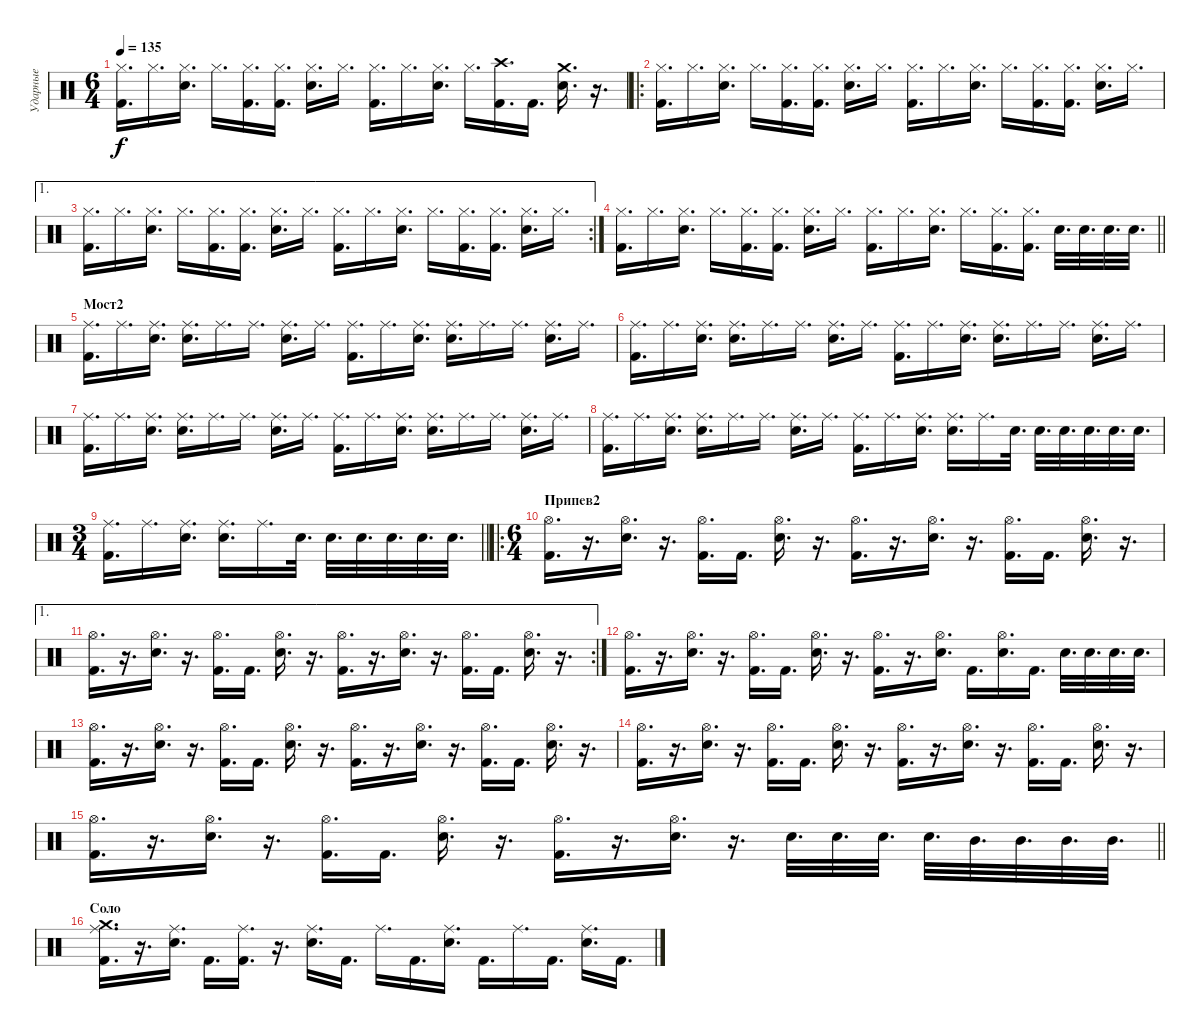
\track ("Ударные" "Ударные") {instrument percussion}
\staff {score}
\articulation defaults
\ts (6 4)
\tempo 135
\clef neutral
\ks c
("Hi-Hat (closed)" "Kick (hit) 2").16{d dy f} "Hi-Hat (closed)".16{d} ("Hi-Hat (closed)" "Electric Snare (hit)").16{d} "Hi-Hat (closed)".16{d} ("Hi-Hat (closed)" "Kick (hit) 2").16{d} ("Hi-Hat (closed)" "Kick (hit) 2").16{d} ("Hi-Hat (closed)" "Electric Snare (hit)").16{d} "Hi-Hat (closed)".16{d} ("Hi-Hat (closed)" "Kick (hit) 2").16{d} "Hi-Hat (closed)".16{d} ("Hi-Hat (closed)" "Electric Snare (hit)").16{d} "Hi-Hat (closed)".16{d} ("Crash high (hit)" "Kick (hit) 2").16{d} "Kick (hit) 2".16{d} ("Crash medium (hit)" "Electric Snare (hit)").16{d} r.16{d} |
\ro
("Hi-Hat (closed)" "Kick (hit) 2").16{d} "Hi-Hat (closed)".16{d} ("Hi-Hat (closed)" "Electric Snare (hit)").16{d} "Hi-Hat (closed)".16{d} ("Hi-Hat (closed)" "Kick (hit) 2").16{d} ("Hi-Hat (closed)" "Kick (hit) 2").16{d} ("Hi-Hat (closed)" "Electric Snare (hit)").16{d} "Hi-Hat (closed)".16{d} ("Hi-Hat (closed)" "Kick (hit) 2").16{d} "Hi-Hat (closed)".16{d} ("Hi-Hat (closed)" "Electric Snare (hit)").16{d} "Hi-Hat (closed)".16{d} ("Hi-Hat (closed)" "Kick (hit) 2").16{d} ("Hi-Hat (closed)" "Kick (hit) 2").16{d} ("Hi-Hat (closed)" "Electric Snare (hit)").16{d} "Hi-Hat (closed)".16{d} |
\ae 1
\rc 2
("Hi-Hat (closed)" "Kick (hit) 2").16{d} "Hi-Hat (closed)".16{d} ("Hi-Hat (closed)" "Electric Snare (hit)").16{d} "Hi-Hat (closed)".16{d} ("Hi-Hat (closed)" "Kick (hit) 2").16{d} ("Hi-Hat (closed)" "Kick (hit) 2").16{d} ("Hi-Hat (closed)" "Electric Snare (hit)").16{d} "Hi-Hat (closed)".16{d} ("Hi-Hat (closed)" "Kick (hit) 2").16{d} "Hi-Hat (closed)".16{d} ("Hi-Hat (closed)" "Electric Snare (hit)").16{d} "Hi-Hat (closed)".16{d} ("Hi-Hat (closed)" "Kick (hit) 2").16{d} ("Hi-Hat (closed)" "Kick (hit) 2").16{d} ("Hi-Hat (closed)" "Electric Snare (hit)").16{d} "Hi-Hat (closed)".16{d} |
\barLineRight lightlight
("Hi-Hat (closed)" "Kick (hit) 2").16{d} "Hi-Hat (closed)".16{d} ("Hi-Hat (closed)" "Electric Snare (hit)").16{d} "Hi-Hat (closed)".16{d} ("Hi-Hat (closed)" "Kick (hit) 2").16{d} ("Hi-Hat (closed)" "Kick (hit) 2").16{d} ("Hi-Hat (closed)" "Electric Snare (hit)").16{d} "Hi-Hat (closed)".16{d} ("Hi-Hat (closed)" "Kick (hit) 2").16{d} "Hi-Hat (closed)".16{d} ("Hi-Hat (closed)" "Electric Snare (hit)").16{d} "Hi-Hat (closed)".16{d} ("Hi-Hat (closed)" "Kick (hit) 2").16{d} ("Hi-Hat (closed)" "Kick (hit) 2").16{d} "Electric Snare (hit)".32{d} "Electric Snare (hit)".32{d} "Electric Snare (hit)".32{d} "Electric Snare (hit)".32{d} |
\section ("" "Мост2")
("Ride (middle)" "Kick (hit) 2").16{d} "Ride (middle)".16{d} ("Ride (middle)" "Electric Snare (hit)").16{d} ("Ride (middle)" "Electric Snare (hit)").16{d} "Ride (middle)".16{d} "Ride (middle)".16{d} ("Ride (middle)" "Electric Snare (hit)").16{d} "Ride (middle)".16{d} ("Ride (middle)" "Kick (hit) 2").16{d} "Ride (middle)".16{d} ("Ride (middle)" "Electric Snare (hit)").16{d} ("Ride (middle)" "Electric Snare (hit)").16{d} "Ride (middle)".16{d} "Ride (middle)".16{d} ("Ride (middle)" "Electric Snare (hit)").16{d} "Ride (middle)".16{d} |
("Ride (middle)" "Kick (hit) 2").16{d} "Ride (middle)".16{d} ("Ride (middle)" "Electric Snare (hit)").16{d} ("Ride (middle)" "Electric Snare (hit)").16{d} "Ride (middle)".16{d} "Ride (middle)".16{d} ("Ride (middle)" "Electric Snare (hit)").16{d} "Ride (middle)".16{d} ("Ride (middle)" "Kick (hit) 2").16{d} "Ride (middle)".16{d} ("Ride (middle)" "Electric Snare (hit)").16{d} ("Ride (middle)" "Electric Snare (hit)").16{d} "Ride (middle)".16{d} "Ride (middle)".16{d} ("Ride (middle)" "Electric Snare (hit)").16{d} "Ride (middle)".16{d} |
("Ride (middle)" "Kick (hit) 2").16{d} "Ride (middle)".16{d} ("Ride (middle)" "Electric Snare (hit)").16{d} ("Ride (middle)" "Electric Snare (hit)").16{d} "Ride (middle)".16{d} "Ride (middle)".16{d} ("Ride (middle)" "Electric Snare (hit)").16{d} "Ride (middle)".16{d} ("Ride (middle)" "Kick (hit) 2").16{d} "Ride (middle)".16{d} ("Ride (middle)" "Electric Snare (hit)").16{d} ("Ride (middle)" "Electric Snare (hit)").16{d} "Ride (middle)".16{d} "Ride (middle)".16{d} ("Ride (middle)" "Electric Snare (hit)").16{d} "Ride (middle)".16{d} |
("Ride (middle)" "Kick (hit) 2").16{d} "Ride (middle)".16{d} ("Ride (middle)" "Electric Snare (hit)").16{d} ("Ride (middle)" "Electric Snare (hit)").16{d} "Ride (middle)".16{d} "Ride (middle)".16{d} ("Ride (middle)" "Electric Snare (hit)").16{d} "Ride (middle)".16{d} ("Ride (middle)" "Kick (hit) 2").16{d} "Ride (middle)".16{d} ("Ride (middle)" "Electric Snare (hit)").16{d} ("Ride (middle)" "Electric Snare (hit)").16{d} "Ride (middle)".16{d} "Electric Snare (hit)".32{d} "Electric Snare (hit)".32{d} "Electric Snare (hit)".32{d} "Electric Snare (hit)".32{d} "Electric Snare (hit)".32{d} "Electric Snare (hit)".32{d} |
\ts (3 4)
\barLineRight lightlight
("Ride (middle)" "Kick (hit) 2").16{d} "Ride (middle)".16{d} ("Ride (middle)" "Electric Snare (hit)").16{d} ("Ride (middle)" "Electric Snare (hit)").16{d} "Ride (middle)".16{d} "Electric Snare (hit)".32{d} "Electric Snare (hit)".32{d} "Electric Snare (hit)".32{d} "Electric Snare (hit)".32{d} "Electric Snare (hit)".32{d} "Electric Snare (hit)".32{d} |
\ro
\ts (6 4)
\section ("" "Припев2")
("Hi-Hat (open)" "Kick (hit) 2").16{d} r.16{d} ("Hi-Hat (open)" "Electric Snare (hit)").16{d} r.16{d} ("Hi-Hat (open)" "Kick (hit) 2").16{d} "Kick (hit) 2".16{d} ("Hi-Hat (open)" "Electric Snare (hit)").16{d} r.16{d} ("Hi-Hat (open)" "Kick (hit) 2").16{d} r.16{d} ("Hi-Hat (open)" "Electric Snare (hit)").16{d} r.16{d} ("Hi-Hat (open)" "Kick (hit) 2").16{d} "Kick (hit) 2".16{d} ("Hi-Hat (open)" "Electric Snare (hit)").16{d} r.16{d} |
\ae 1
\rc 2
("Hi-Hat (open)" "Kick (hit) 2").16{d} r.16{d} ("Hi-Hat (open)" "Electric Snare (hit)").16{d} r.16{d} ("Hi-Hat (open)" "Kick (hit) 2").16{d} "Kick (hit) 2".16{d} ("Hi-Hat (open)" "Electric Snare (hit)").16{d} r.16{d} ("Hi-Hat (open)" "Kick (hit) 2").16{d} r.16{d} ("Hi-Hat (open)" "Electric Snare (hit)").16{d} r.16{d} ("Hi-Hat (open)" "Kick (hit) 2").16{d} "Kick (hit) 2".16{d} ("Hi-Hat (open)" "Electric Snare (hit)").16{d} r.16{d} |
("Hi-Hat (open)" "Kick (hit) 2").16{d} r.16{d} ("Hi-Hat (open)" "Electric Snare (hit)").16{d} r.16{d} ("Hi-Hat (open)" "Kick (hit) 2").16{d} "Kick (hit) 2".16{d} ("Hi-Hat (open)" "Electric Snare (hit)").16{d} r.16{d} ("Hi-Hat (open)" "Kick (hit) 2").16{d} r.16{d} ("Hi-Hat (open)" "Electric Snare (hit)").16{d} "Kick (hit) 2".16{d} ("Hi-Hat (open)" "Electric Snare (hit)").16{d} "Kick (hit) 2".16{d} "Electric Snare (hit)".32{d} "Electric Snare (hit)".32{d} "Electric Snare (hit)".32{d} "Electric Snare (hit)".32{d} |
("Hi-Hat (open)" "Kick (hit) 2").16{d} r.16{d} ("Hi-Hat (open)" "Electric Snare (hit)").16{d} r.16{d} ("Hi-Hat (open)" "Kick (hit) 2").16{d} "Kick (hit) 2".16{d} ("Hi-Hat (open)" "Electric Snare (hit)").16{d} r.16{d} ("Hi-Hat (open)" "Kick (hit) 2").16{d} r.16{d} ("Hi-Hat (open)" "Electric Snare (hit)").16{d} r.16{d} ("Hi-Hat (open)" "Kick (hit) 2").16{d} "Kick (hit) 2".16{d} ("Hi-Hat (open)" "Electric Snare (hit)").16{d} r.16{d} |
("Hi-Hat (open)" "Kick (hit) 2").16{d} r.16{d} ("Hi-Hat (open)" "Electric Snare (hit)").16{d} r.16{d} ("Hi-Hat (open)" "Kick (hit) 2").16{d} "Kick (hit) 2".16{d} ("Hi-Hat (open)" "Electric Snare (hit)").16{d} r.16{d} ("Hi-Hat (open)" "Kick (hit) 2").16{d} r.16{d} ("Hi-Hat (open)" "Electric Snare (hit)").16{d} r.16{d} ("Hi-Hat (open)" "Kick (hit) 2").16{d} "Kick (hit) 2".16{d} ("Hi-Hat (open)" "Electric Snare (hit)").16{d} r.16{d} |
\barLineRight lightlight
("Hi-Hat (open)" "Kick (hit) 2").16{d} r.16{d} ("Hi-Hat (open)" "Electric Snare (hit)").16{d} r.16{d} ("Hi-Hat (open)" "Kick (hit) 2").16{d} "Kick (hit) 2".16{d} ("Hi-Hat (open)" "Electric Snare (hit)").16{d} r.16{d} ("Hi-Hat (open)" "Kick (hit) 2").16{d} r.16{d} ("Hi-Hat (open)" "Electric Snare (hit)").16{d} r.16{d} "Electric Snare (hit)".32{d} "Electric Snare (hit)".32{d} "Electric Snare (hit)".32{d} "Electric Snare (hit)".32{d} "Mid Tom (hit)".32{d} "Mid Tom (hit)".32{d} "Mid Tom (hit)".32{d} "Mid Tom (hit)".32{d} |
\section ("" "Соло")
("Ride (middle)" "Crash medium (hit)" "Kick (hit) 2").16{d} r.16{d} ("Ride (middle)" "Electric Snare (hit)").16{d} "Kick (hit) 2".16{d} ("Ride (middle)" "Kick (hit) 2").16{d} r.16{d} ("Ride (middle)" "Electric Snare (hit)").16{d} "Kick (hit) 2".16{d} "Ride (middle)".16{d} "Kick (hit) 2".16{d} ("Ride (middle)" "Electric Snare (hit)").16{d} "Kick (hit) 2".16{d} "Ride (middle)".16{d} "Kick (hit) 2".16{d} ("Ride (middle)" "Electric Snare (hit)").16{d} "Kick (hit) 2".16{d}
